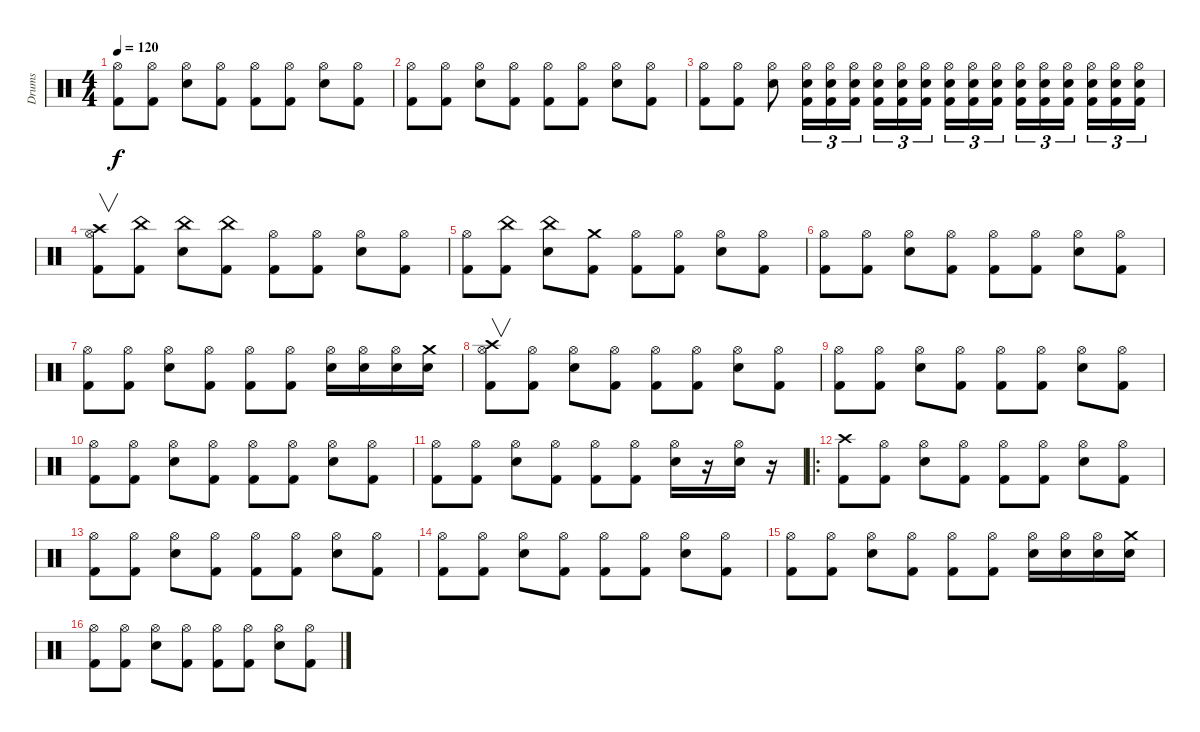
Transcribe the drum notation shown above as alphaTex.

\track ("Drums" "Drums") {instrument percussion}
\staff {score}
\articulation defaults
\ts (4 4)
\tempo 120
\clef neutral
\ks c
("Hi-Hat (open)" "Kick (hit) 2").8{dy f} ("Hi-Hat (open)" "Kick (hit) 2").8 ("Hi-Hat (open)" "Electric Snare (hit)").8 ("Hi-Hat (open)" "Kick (hit) 2").8 ("Hi-Hat (open)" "Kick (hit) 2").8 ("Hi-Hat (open)" "Kick (hit) 2").8 ("Hi-Hat (open)" "Electric Snare (hit)").8 ("Hi-Hat (open)" "Kick (hit) 2").8 |
("Hi-Hat (open)" "Kick (hit) 2").8 ("Hi-Hat (open)" "Kick (hit) 2").8 ("Hi-Hat (open)" "Electric Snare (hit)").8 ("Hi-Hat (open)" "Kick (hit) 2").8 ("Hi-Hat (open)" "Kick (hit) 2").8 ("Hi-Hat (open)" "Kick (hit) 2").8 ("Hi-Hat (open)" "Electric Snare (hit)").8 ("Hi-Hat (open)" "Kick (hit) 2").8 |
("Hi-Hat (open)" "Kick (hit) 2").8 ("Hi-Hat (open)" "Kick (hit) 2").8 ("Hi-Hat (open)" "Electric Snare (hit)").8 ("Hi-Hat (open)" "Kick (hit) 2" "Electric Snare (hit)").16{tu (3 2)} ("Hi-Hat (open)" "Kick (hit) 2" "Electric Snare (hit)").16{tu (3 2)} ("Hi-Hat (open)" "Kick (hit) 2" "Electric Snare (hit)").16{tu (3 2)} ("Hi-Hat (open)" "Kick (hit) 2" "Electric Snare (hit)").16{tu (3 2)} ("Hi-Hat (open)" "Kick (hit) 2" "Electric Snare (hit)").16{tu (3 2)} ("Hi-Hat (open)" "Kick (hit) 2" "Electric Snare (hit)").16{tu (3 2)} ("Hi-Hat (open)" "Kick (hit) 2" "Electric Snare (hit)").16{tu (3 2)} ("Hi-Hat (open)" "Kick (hit) 2" "Electric Snare (hit)").16{tu (3 2)} ("Hi-Hat (open)" "Kick (hit) 2" "Electric Snare (hit)").16{tu (3 2)} ("Hi-Hat (open)" "Kick (hit) 2" "Electric Snare (hit)").16{tu (3 2)} ("Hi-Hat (open)" "Kick (hit) 2" "Electric Snare (hit)").16{tu (3 2)} ("Hi-Hat (open)" "Kick (hit) 2" "Electric Snare (hit)").16{tu (3 2)} ("Hi-Hat (open)" "Kick (hit) 2" "Electric Snare (hit)").16{tu (3 2)} ("Hi-Hat (open)" "Kick (hit) 2" "Electric Snare (hit)").16{tu (3 2)} ("Hi-Hat (open)" "Kick (hit) 2" "Electric Snare (hit)").16{tu (3 2)} |
("Crash high (hit)" "Hi-Hat (open)" "Kick (hit) 2").8{v} ("China (hit)" "Kick (hit) 2").8 ("China (hit)" "Electric Snare (hit)").8 ("China (hit)" "Kick (hit) 2").8 ("Hi-Hat (open)" "Kick (hit) 2").8 ("Hi-Hat (open)" "Kick (hit) 2").8 ("Hi-Hat (open)" "Electric Snare (hit)").8 ("Hi-Hat (open)" "Kick (hit) 2").8 |
("Hi-Hat (open)" "Kick (hit) 2").8 ("China (hit)" "Kick (hit) 2").8 ("China (hit)" "Electric Snare (hit)").8 ("Crash medium (hit)" "Kick (hit) 2").8 ("Hi-Hat (open)" "Kick (hit) 2").8 ("Hi-Hat (open)" "Kick (hit) 2").8 ("Hi-Hat (open)" "Electric Snare (hit)").8 ("Hi-Hat (open)" "Kick (hit) 2").8 |
("Hi-Hat (open)" "Kick (hit) 2").8 ("Hi-Hat (open)" "Kick (hit) 2").8 ("Hi-Hat (open)" "Electric Snare (hit)").8 ("Hi-Hat (open)" "Kick (hit) 2").8 ("Hi-Hat (open)" "Kick (hit) 2").8 ("Hi-Hat (open)" "Kick (hit) 2").8 ("Hi-Hat (open)" "Electric Snare (hit)").8 ("Hi-Hat (open)" "Kick (hit) 2").8 |
("Hi-Hat (open)" "Kick (hit) 2").8 ("Hi-Hat (open)" "Kick (hit) 2").8 ("Hi-Hat (open)" "Electric Snare (hit)").8 ("Hi-Hat (open)" "Kick (hit) 2").8 ("Hi-Hat (open)" "Kick (hit) 2").8 ("Hi-Hat (open)" "Kick (hit) 2").8 ("Hi-Hat (open)" "Electric Snare (hit)").16 ("Hi-Hat (open)" "Electric Snare (hit)").16 ("Hi-Hat (open)" "Electric Snare (hit)").16 ("Crash medium (hit)" "Electric Snare (hit)").16 |
("Crash high (hit)" "Hi-Hat (open)" "Kick (hit) 2").8{v} ("Hi-Hat (open)" "Kick (hit) 2").8 ("Hi-Hat (open)" "Electric Snare (hit)").8 ("Hi-Hat (open)" "Kick (hit) 2").8 ("Hi-Hat (open)" "Kick (hit) 2").8 ("Hi-Hat (open)" "Kick (hit) 2").8 ("Hi-Hat (open)" "Electric Snare (hit)").8 ("Hi-Hat (open)" "Kick (hit) 2").8 |
("Hi-Hat (open)" "Kick (hit) 2").8 ("Hi-Hat (open)" "Kick (hit) 2").8 ("Hi-Hat (open)" "Electric Snare (hit)").8 ("Hi-Hat (open)" "Kick (hit) 2").8 ("Hi-Hat (open)" "Kick (hit) 2").8 ("Hi-Hat (open)" "Kick (hit) 2").8 ("Hi-Hat (open)" "Electric Snare (hit)").8 ("Hi-Hat (open)" "Kick (hit) 2").8 |
("Hi-Hat (open)" "Kick (hit) 2").8 ("Hi-Hat (open)" "Kick (hit) 2").8 ("Hi-Hat (open)" "Electric Snare (hit)").8 ("Hi-Hat (open)" "Kick (hit) 2").8 ("Hi-Hat (open)" "Kick (hit) 2").8 ("Hi-Hat (open)" "Kick (hit) 2").8 ("Hi-Hat (open)" "Electric Snare (hit)").8 ("Hi-Hat (open)" "Kick (hit) 2").8 |
("Hi-Hat (open)" "Kick (hit) 2").8 ("Hi-Hat (open)" "Kick (hit) 2").8 ("Hi-Hat (open)" "Electric Snare (hit)").8 ("Hi-Hat (open)" "Kick (hit) 2").8 ("Hi-Hat (open)" "Kick (hit) 2").8 ("Hi-Hat (open)" "Kick (hit) 2").8 ("Hi-Hat (open)" "Electric Snare (hit)").16 r.16 ("Hi-Hat (open)" "Electric Snare (hit)").16 r.16 |
\ro
("Crash high (hit)" "Kick (hit) 2").8 ("Hi-Hat (open)" "Kick (hit) 2").8 ("Hi-Hat (open)" "Electric Snare (hit)").8 ("Hi-Hat (open)" "Kick (hit) 2").8 ("Hi-Hat (open)" "Kick (hit) 2").8 ("Hi-Hat (open)" "Kick (hit) 2").8 ("Hi-Hat (open)" "Electric Snare (hit)").8 ("Hi-Hat (open)" "Kick (hit) 2").8 |
("Hi-Hat (open)" "Kick (hit) 2").8 ("Hi-Hat (open)" "Kick (hit) 2").8 ("Hi-Hat (open)" "Electric Snare (hit)").8 ("Hi-Hat (open)" "Kick (hit) 2").8 ("Hi-Hat (open)" "Kick (hit) 2").8 ("Hi-Hat (open)" "Kick (hit) 2").8 ("Hi-Hat (open)" "Electric Snare (hit)").8 ("Hi-Hat (open)" "Kick (hit) 2").8 |
("Hi-Hat (open)" "Kick (hit) 2").8 ("Hi-Hat (open)" "Kick (hit) 2").8 ("Hi-Hat (open)" "Electric Snare (hit)").8 ("Hi-Hat (open)" "Kick (hit) 2").8 ("Hi-Hat (open)" "Kick (hit) 2").8 ("Hi-Hat (open)" "Kick (hit) 2").8 ("Hi-Hat (open)" "Electric Snare (hit)").8 ("Hi-Hat (open)" "Kick (hit) 2").8 |
("Hi-Hat (open)" "Kick (hit) 2").8 ("Hi-Hat (open)" "Kick (hit) 2").8 ("Hi-Hat (open)" "Electric Snare (hit)").8 ("Hi-Hat (open)" "Kick (hit) 2").8 ("Hi-Hat (open)" "Kick (hit) 2").8 ("Hi-Hat (open)" "Kick (hit) 2").8 ("Hi-Hat (open)" "Electric Snare (hit)").16 ("Hi-Hat (open)" "Electric Snare (hit)").16 ("Hi-Hat (open)" "Electric Snare (hit)").16 ("Crash medium (hit)" "Electric Snare (hit)").16 |
("Hi-Hat (open)" "Kick (hit) 2").8 ("Hi-Hat (open)" "Kick (hit) 2").8 ("Hi-Hat (open)" "Electric Snare (hit)").8 ("Hi-Hat (open)" "Kick (hit) 2").8 ("Hi-Hat (open)" "Kick (hit) 2").8 ("Hi-Hat (open)" "Kick (hit) 2").8 ("Hi-Hat (open)" "Electric Snare (hit)").8 ("Hi-Hat (open)" "Kick (hit) 2").8
